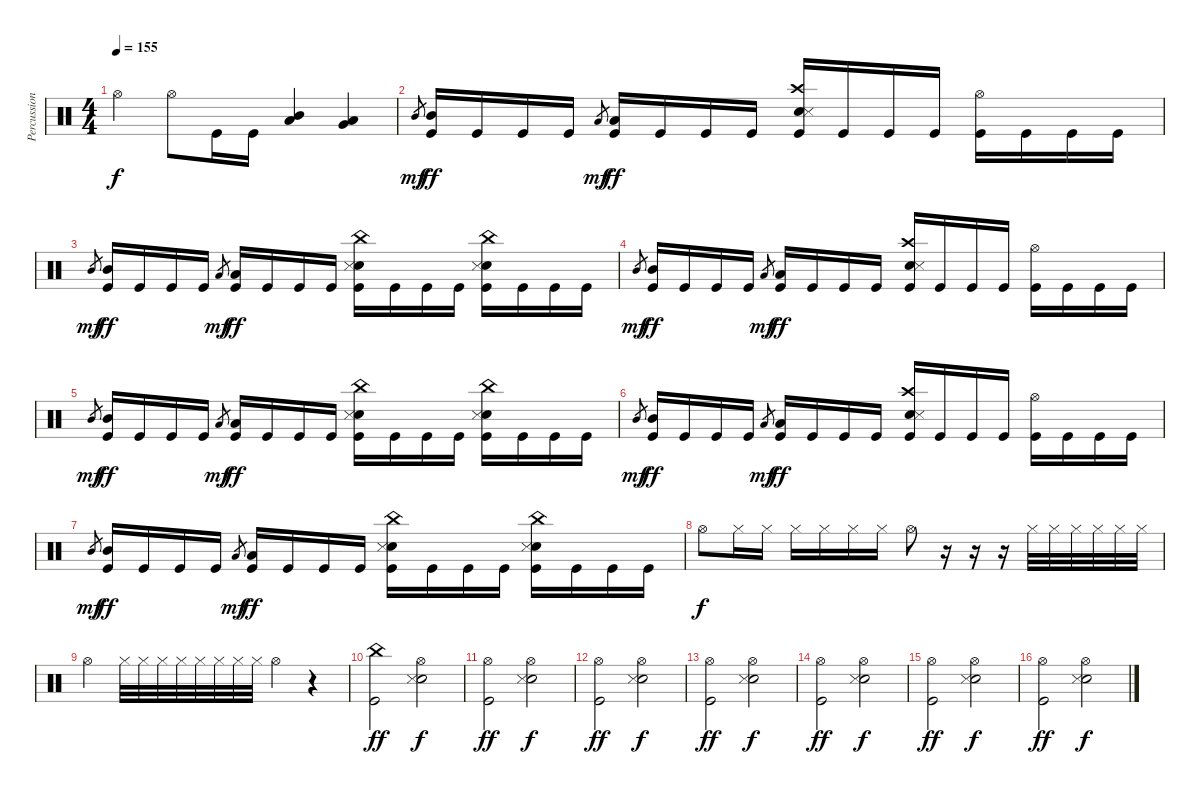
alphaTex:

\track ("Percussions" "Percussion") {instrument percussion}
\staff {score}
\articulation defaults
\ts (4 4)
\tempo 155
\clef neutral
\ks c "Hi-Hat (open)".4{dy f} "Hi-Hat (open)".8 "Kick (hit)".16 "Kick (hit)".16
("Mid Tom (hit)" "Low Tom (hit)").4 ("Low Tom (hit)" "Very Low Tom (hit)").4 |
"Mid Tom (hit)".8{gr dy mf} ("Mid Tom (hit)" "Kick (hit)").16{dy ff} "Kick (hit)".16 "Kick (hit)".16 "Kick (hit)".16 "Low Tom (hit)".8{gr dy mf} ("Low Tom (hit)" "Kick (hit)").16{dy ff} "Kick (hit)".16 "Kick (hit)".16 "Kick (hit)".16 ("Crash high (hit)" "Electric Snare (hit)" "Snare (side stick) 3" "Kick (hit)").16 "Kick (hit)".16 "Kick (hit)".16 "Kick (hit)".16 ("Hi-Hat (open)" "Kick (hit)").16 "Kick (hit)".16 "Kick (hit)".16 "Kick (hit)".16 |
"Mid Tom (hit)".8{gr dy mf} ("Mid Tom (hit)" "Kick (hit)").16{dy ff} "Kick (hit)".16 "Kick (hit)".16 "Kick (hit)".16 "Low Tom (hit)".8{gr dy mf} ("Low Tom (hit)" "Kick (hit)").16{dy ff} "Kick (hit)".16 "Kick (hit)".16 "Kick (hit)".16 ("China (hit)" "Electric Snare (hit)" "Snare (side stick) 3" "Kick (hit)").16 "Kick (hit)".16 "Kick (hit)".16 "Kick (hit)".16 ("China (hit)" "Electric Snare (hit)" "Snare (side stick) 3" "Kick (hit)").16 "Kick (hit)".16 "Kick (hit)".16 "Kick (hit)".16 |
"Mid Tom (hit)".8{gr dy mf} ("Mid Tom (hit)" "Kick (hit)").16{dy ff} "Kick (hit)".16 "Kick (hit)".16 "Kick (hit)".16 "Low Tom (hit)".8{gr dy mf} ("Low Tom (hit)" "Kick (hit)").16{dy ff} "Kick (hit)".16 "Kick (hit)".16 "Kick (hit)".16 ("Crash high (hit)" "Electric Snare (hit)" "Snare (side stick) 3" "Kick (hit)").16 "Kick (hit)".16 "Kick (hit)".16 "Kick (hit)".16 ("Hi-Hat (open)" "Kick (hit)").16 "Kick (hit)".16 "Kick (hit)".16 "Kick (hit)".16 |
"Mid Tom (hit)".8{gr dy mf} ("Mid Tom (hit)" "Kick (hit)").16{dy ff} "Kick (hit)".16 "Kick (hit)".16 "Kick (hit)".16 "Low Tom (hit)".8{gr dy mf} ("Low Tom (hit)" "Kick (hit)").16{dy ff} "Kick (hit)".16 "Kick (hit)".16 "Kick (hit)".16 ("China (hit)" "Electric Snare (hit)" "Snare (side stick) 3" "Kick (hit)").16 "Kick (hit)".16 "Kick (hit)".16 "Kick (hit)".16 ("China (hit)" "Electric Snare (hit)" "Snare (side stick) 3" "Kick (hit)").16 "Kick (hit)".16 "Kick (hit)".16 "Kick (hit)".16 |
"Mid Tom (hit)".8{gr dy mf} ("Mid Tom (hit)" "Kick (hit)").16{dy ff} "Kick (hit)".16 "Kick (hit)".16 "Kick (hit)".16 "Low Tom (hit)".8{gr dy mf} ("Low Tom (hit)" "Kick (hit)").16{dy ff} "Kick (hit)".16 "Kick (hit)".16 "Kick (hit)".16 ("Crash high (hit)" "Electric Snare (hit)" "Snare (side stick) 3" "Kick (hit)").16 "Kick (hit)".16 "Kick (hit)".16 "Kick (hit)".16 ("Hi-Hat (open)" "Kick (hit)").16 "Kick (hit)".16 "Kick (hit)".16 "Kick (hit)".16 |
"Mid Tom (hit)".8{gr dy mf} ("Mid Tom (hit)" "Kick (hit)").16{dy ff} "Kick (hit)".16 "Kick (hit)".16 "Kick (hit)".16 "Low Tom (hit)".8{gr dy mf} ("Low Tom (hit)" "Kick (hit)").16{dy ff} "Kick (hit)".16 "Kick (hit)".16 "Kick (hit)".16 ("China (hit)" "Electric Snare (hit)" "Snare (side stick) 3" "Kick (hit)").16 "Kick (hit)".16 "Kick (hit)".16 "Kick (hit)".16 ("China (hit)" "Electric Snare (hit)" "Snare (side stick) 3" "Kick (hit)").16 "Kick (hit)".16 "Kick (hit)".16 "Kick (hit)".16 |
"Hi-Hat (open)".8{dy f} "Hi-Hat (closed)".16 "Hi-Hat (closed)".16 "Hi-Hat (closed)".16 "Hi-Hat (closed)".16 "Hi-Hat (closed)".16 "Hi-Hat (closed)".16 "Hi-Hat (open)".8 r.16 r.16 r.16 "Hi-Hat (closed)".32 "Hi-Hat (closed)".32 "Hi-Hat (closed)".32 "Hi-Hat (closed)".32 "Hi-Hat (closed)".32 "Hi-Hat (closed)".32 |
"Hi-Hat (open)".4 "Hi-Hat (closed)".32 "Hi-Hat (closed)".32 "Hi-Hat (closed)".32 "Hi-Hat (closed)".32 "Hi-Hat (closed)".32 "Hi-Hat (closed)".32 "Hi-Hat (closed)".32 "Hi-Hat (closed)".32 "Hi-Hat (open)".4 r.4 |
("China (hit)" "Kick (hit)").2{dy ff} ("Hi-Hat (open)" "Electric Snare (hit)" "Snare (side stick) 3").2{dy f} |
("Hi-Hat (open)" "Kick (hit)").2{dy ff} ("Hi-Hat (open)" "Electric Snare (hit)" "Snare (side stick) 3").2{dy f} |
("Hi-Hat (open)" "Kick (hit)").2{dy ff} ("Hi-Hat (open)" "Electric Snare (hit)" "Snare (side stick) 3").2{dy f} |
("Hi-Hat (open)" "Kick (hit)").2{dy ff} ("Hi-Hat (open)" "Electric Snare (hit)" "Snare (side stick) 3").2{dy f} |
("Hi-Hat (open)" "Kick (hit)").2{dy ff} ("Hi-Hat (open)" "Electric Snare (hit)" "Snare (side stick) 3").2{dy f} |
("Hi-Hat (open)" "Kick (hit)").2{dy ff} ("Hi-Hat (open)" "Electric Snare (hit)" "Snare (side stick) 3").2{dy f} |
("Hi-Hat (open)" "Kick (hit)").2{dy ff} ("Hi-Hat (open)" "Electric Snare (hit)" "Snare (side stick) 3").2{dy f}
